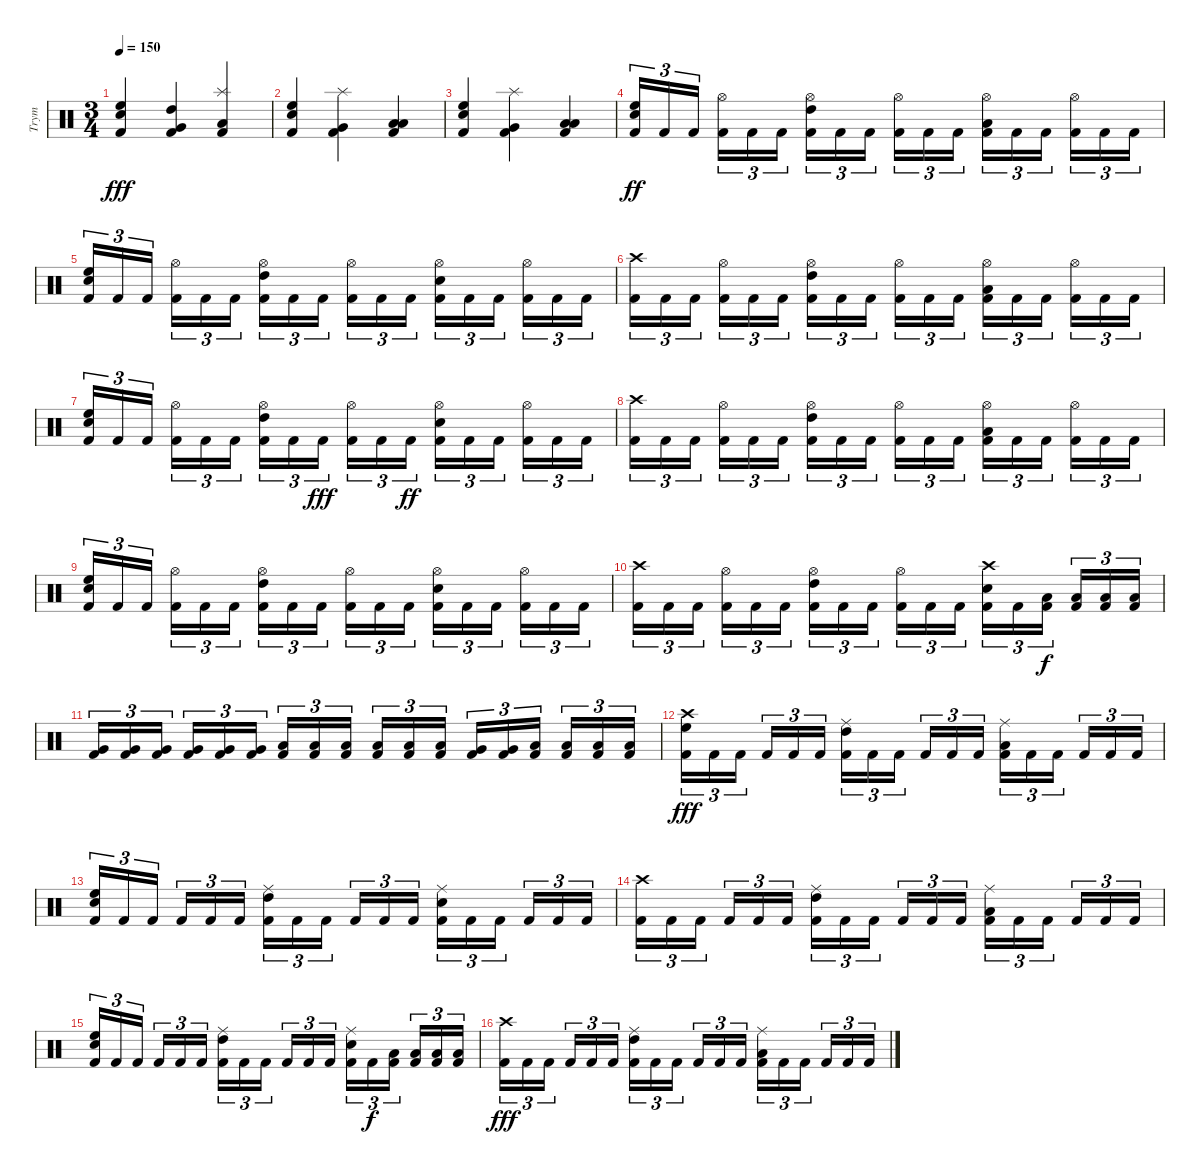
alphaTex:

\track ("Trym" "Trym") {instrument percussion}
\staff {score}
\articulation defaults
\ts (3 4)
\tempo 150
\clef neutral
\ks c
("Snare (hit) 2" "High Floor Tom (hit)" "Kick (hit) 2").4{dy fff} ("High Tom (hit)" "Very Low Tom (hit)" "Kick (hit) 2").4 ("Splash (hit)" "Low Floor Tom (hit)" "Kick (hit) 2").4 |
("Snare (hit) 2" "High Floor Tom (hit)" "Kick (hit) 2").4 ("Splash (hit)" "Very Low Tom (hit)" "Kick (hit) 2").4 ("Low Floor Tom (hit)" "Low Floor Tom (hit)" "Kick (hit) 2").4 |
("Snare (hit) 2" "High Floor Tom (hit)" "Kick (hit) 2").4 ("Splash (hit)" "Very Low Tom (hit)" "Kick (hit) 2").4 ("Low Floor Tom (hit)" "Low Floor Tom (hit)" "Kick (hit) 2").4 |
("Snare (hit) 2" "High Floor Tom (hit)" "Kick (hit) 2").16{tu (3 2) dy ff} "Kick (hit) 2".16{tu (3 2)} "Kick (hit) 2".16{tu (3 2) beam splitsecondary} ("Hi-Hat (open)" "Kick (hit) 2").16{tu (3 2)} "Kick (hit) 2".16{tu (3 2)} "Kick (hit) 2".16{tu (3 2)} ("High Tom (hit)" "Hi-Hat (open)" "Kick (hit) 2").16{tu (3 2)} "Kick (hit) 2".16{tu (3 2)} "Kick (hit) 2".16{tu (3 2) beam splitsecondary} ("Hi-Hat (open)" "Kick (hit) 2").16{tu (3 2)} "Kick (hit) 2".16{tu (3 2)} "Kick (hit) 2".16{tu (3 2)} ("Low Floor Tom (hit)" "Hi-Hat (open)" "Kick (hit) 2").16{tu (3 2)} "Kick (hit) 2".16{tu (3 2)} "Kick (hit) 2".16{tu (3 2) beam splitsecondary} ("Hi-Hat (open)" "Kick (hit) 2").16{tu (3 2)} "Kick (hit) 2".16{tu (3 2)} "Kick (hit) 2".16{tu (3 2)} |
("Snare (hit) 2" "High Floor Tom (hit)" "Kick (hit) 2").16{tu (3 2)} "Kick (hit) 2".16{tu (3 2)} "Kick (hit) 2".16{tu (3 2) beam splitsecondary} ("Hi-Hat (open)" "Kick (hit) 2").16{tu (3 2)} "Kick (hit) 2".16{tu (3 2)} "Kick (hit) 2".16{tu (3 2)} ("High Tom (hit)" "Hi-Hat (open)" "Kick (hit) 2").16{tu (3 2)} "Kick (hit) 2".16{tu (3 2)} "Kick (hit) 2".16{tu (3 2) beam splitsecondary} ("Hi-Hat (open)" "Kick (hit) 2").16{tu (3 2)} "Kick (hit) 2".16{tu (3 2)} "Kick (hit) 2".16{tu (3 2)} ("Snare (hit) 2" "Hi-Hat (open)" "Kick (hit) 2").16{tu (3 2)} "Kick (hit) 2".16{tu (3 2)} "Kick (hit) 2".16{tu (3 2) beam splitsecondary} ("Hi-Hat (open)" "Kick (hit) 2").16{tu (3 2)} "Kick (hit) 2".16{tu (3 2)} "Kick (hit) 2".16{tu (3 2)} |
("Crash high (hit)" "Kick (hit) 2").16{tu (3 2)} "Kick (hit) 2".16{tu (3 2)} "Kick (hit) 2".16{tu (3 2) beam splitsecondary} ("Hi-Hat (open)" "Kick (hit) 2").16{tu (3 2)} "Kick (hit) 2".16{tu (3 2)} "Kick (hit) 2".16{tu (3 2)} ("High Tom (hit)" "Hi-Hat (open)" "Kick (hit) 2").16{tu (3 2)} "Kick (hit) 2".16{tu (3 2)} "Kick (hit) 2".16{tu (3 2) beam splitsecondary} ("Hi-Hat (open)" "Kick (hit) 2").16{tu (3 2)} "Kick (hit) 2".16{tu (3 2)} "Kick (hit) 2".16{tu (3 2)} ("Low Floor Tom (hit)" "Hi-Hat (open)" "Kick (hit) 2").16{tu (3 2)} "Kick (hit) 2".16{tu (3 2)} "Kick (hit) 2".16{tu (3 2) beam splitsecondary} ("Hi-Hat (open)" "Kick (hit) 2").16{tu (3 2)} "Kick (hit) 2".16{tu (3 2)} "Kick (hit) 2".16{tu (3 2)} |
("Snare (hit) 2" "High Floor Tom (hit)" "Kick (hit) 2").16{tu (3 2)} "Kick (hit) 2".16{tu (3 2)} "Kick (hit) 2".16{tu (3 2) beam splitsecondary} ("Hi-Hat (open)" "Kick (hit) 2").16{tu (3 2)} "Kick (hit) 2".16{tu (3 2)} "Kick (hit) 2".16{tu (3 2)} ("High Tom (hit)" "Hi-Hat (open)" "Kick (hit) 2").16{tu (3 2)} "Kick (hit) 2".16{tu (3 2)} "Kick (hit) 2".16{tu (3 2) dy fff beam splitsecondary} ("Hi-Hat (open)" "Kick (hit) 2").16{tu (3 2)} "Kick (hit) 2".16{tu (3 2)} "Kick (hit) 2".16{tu (3 2) dy ff} ("Snare (hit) 2" "Hi-Hat (open)" "Kick (hit) 2").16{tu (3 2)} "Kick (hit) 2".16{tu (3 2)} "Kick (hit) 2".16{tu (3 2) beam splitsecondary} ("Hi-Hat (open)" "Kick (hit) 2").16{tu (3 2)} "Kick (hit) 2".16{tu (3 2)} "Kick (hit) 2".16{tu (3 2)} |
("Crash high (hit)" "Kick (hit) 2").16{tu (3 2)} "Kick (hit) 2".16{tu (3 2)} "Kick (hit) 2".16{tu (3 2) beam splitsecondary} ("Hi-Hat (open)" "Kick (hit) 2").16{tu (3 2)} "Kick (hit) 2".16{tu (3 2)} "Kick (hit) 2".16{tu (3 2)} ("High Tom (hit)" "Hi-Hat (open)" "Kick (hit) 2").16{tu (3 2)} "Kick (hit) 2".16{tu (3 2)} "Kick (hit) 2".16{tu (3 2) beam splitsecondary} ("Hi-Hat (open)" "Kick (hit) 2").16{tu (3 2)} "Kick (hit) 2".16{tu (3 2)} "Kick (hit) 2".16{tu (3 2)} ("Low Floor Tom (hit)" "Hi-Hat (open)" "Kick (hit) 2").16{tu (3 2)} "Kick (hit) 2".16{tu (3 2)} "Kick (hit) 2".16{tu (3 2) beam splitsecondary} ("Hi-Hat (open)" "Kick (hit) 2").16{tu (3 2)} "Kick (hit) 2".16{tu (3 2)} "Kick (hit) 2".16{tu (3 2)} |
("Snare (hit) 2" "High Floor Tom (hit)" "Kick (hit) 2").16{tu (3 2)} "Kick (hit) 2".16{tu (3 2)} "Kick (hit) 2".16{tu (3 2) beam splitsecondary} ("Hi-Hat (open)" "Kick (hit) 2").16{tu (3 2)} "Kick (hit) 2".16{tu (3 2)} "Kick (hit) 2".16{tu (3 2)} ("High Tom (hit)" "Hi-Hat (open)" "Kick (hit) 2").16{tu (3 2)} "Kick (hit) 2".16{tu (3 2)} "Kick (hit) 2".16{tu (3 2) beam splitsecondary} ("Hi-Hat (open)" "Kick (hit) 2").16{tu (3 2)} "Kick (hit) 2".16{tu (3 2)} "Kick (hit) 2".16{tu (3 2)} ("Snare (hit) 2" "Hi-Hat (open)" "Kick (hit) 2").16{tu (3 2)} "Kick (hit) 2".16{tu (3 2)} "Kick (hit) 2".16{tu (3 2) beam splitsecondary} ("Hi-Hat (open)" "Kick (hit) 2").16{tu (3 2)} "Kick (hit) 2".16{tu (3 2)} "Kick (hit) 2".16{tu (3 2)} |
("Crash high (hit)" "Kick (hit) 2").16{tu (3 2)} "Kick (hit) 2".16{tu (3 2)} "Kick (hit) 2".16{tu (3 2) beam splitsecondary} ("Hi-Hat (open)" "Kick (hit) 2").16{tu (3 2)} "Kick (hit) 2".16{tu (3 2)} "Kick (hit) 2".16{tu (3 2)} ("High Tom (hit)" "Hi-Hat (open)" "Kick (hit) 2").16{tu (3 2)} "Kick (hit) 2".16{tu (3 2)} "Kick (hit) 2".16{tu (3 2) beam splitsecondary} ("Hi-Hat (open)" "Kick (hit) 2").16{tu (3 2)} "Kick (hit) 2".16{tu (3 2)} "Kick (hit) 2".16{tu (3 2)} ("Crash high (hit)" "Snare (hit) 2" "Kick (hit) 2").16{tu (3 2)} "Kick (hit) 2".16{tu (3 2)} ("Low Floor Tom (hit)" "Kick (hit) 2").16{tu (3 2) dy f beam splitsecondary} ("Low Floor Tom (hit)" "Kick (hit) 2").16{tu (3 2)} ("Low Floor Tom (hit)" "Kick (hit) 2").16{tu (3 2)} ("Low Floor Tom (hit)" "Kick (hit) 2").16{tu (3 2)} |
("Very Low Tom (hit)" "Kick (hit) 2").16{tu (3 2)} ("Very Low Tom (hit)" "Kick (hit) 2").16{tu (3 2)} ("Very Low Tom (hit)" "Kick (hit) 2").16{tu (3 2) beam splitsecondary} ("Very Low Tom (hit)" "Kick (hit) 2").16{tu (3 2)} ("Very Low Tom (hit)" "Kick (hit) 2").16{tu (3 2)} ("Very Low Tom (hit)" "Kick (hit) 2").16{tu (3 2)} ("Low Floor Tom (hit)" "Kick (hit) 2").16{tu (3 2)} ("Low Floor Tom (hit)" "Kick (hit) 2").16{tu (3 2)} ("Low Floor Tom (hit)" "Kick (hit) 2").16{tu (3 2) beam splitsecondary} ("Low Floor Tom (hit)" "Kick (hit) 2").16{tu (3 2)} ("Low Floor Tom (hit)" "Kick (hit) 2").16{tu (3 2)} ("Low Floor Tom (hit)" "Kick (hit) 2").16{tu (3 2)} ("Very Low Tom (hit)" "Kick (hit) 2").16{tu (3 2)} ("Very Low Tom (hit)" "Kick (hit) 2").16{tu (3 2)} ("Low Tom (hit)" "Kick (hit) 2").16{tu (3 2) beam splitsecondary} ("Low Tom (hit)" "Kick (hit) 2").16{tu (3 2)} ("Low Floor Tom (hit)" "Kick (hit) 2").16{tu (3 2)} ("Low Floor Tom (hit)" "Kick (hit) 2").16{tu (3 2)} |
("Crash high (hit)" "High Floor Tom (hit)" "Kick (hit) 2").16{tu (3 2) dy fff} "Kick (hit) 2".16{tu (3 2)} "Kick (hit) 2".16{tu (3 2) beam splitsecondary} "Kick (hit) 2".16{tu (3 2)} "Kick (hit) 2".16{tu (3 2)} "Kick (hit) 2".16{tu (3 2)} ("High Tom (hit)" "Ride (middle)" "Kick (hit) 2").16{tu (3 2)} "Kick (hit) 2".16{tu (3 2)} "Kick (hit) 2".16{tu (3 2) beam splitsecondary} "Kick (hit) 2".16{tu (3 2)} "Kick (hit) 2".16{tu (3 2)} "Kick (hit) 2".16{tu (3 2)} ("Low Floor Tom (hit)" "Ride (middle)" "Kick (hit) 2").16{tu (3 2)} "Kick (hit) 2".16{tu (3 2)} "Kick (hit) 2".16{tu (3 2) beam splitsecondary} "Kick (hit) 2".16{tu (3 2)} "Kick (hit) 2".16{tu (3 2)} "Kick (hit) 2".16{tu (3 2)} |
("Snare (hit) 2" "High Floor Tom (hit)" "Kick (hit) 2").16{tu (3 2)} "Kick (hit) 2".16{tu (3 2)} "Kick (hit) 2".16{tu (3 2) beam splitsecondary} "Kick (hit) 2".16{tu (3 2)} "Kick (hit) 2".16{tu (3 2)} "Kick (hit) 2".16{tu (3 2)} ("High Tom (hit)" "Ride (middle)" "Kick (hit) 2").16{tu (3 2)} "Kick (hit) 2".16{tu (3 2)} "Kick (hit) 2".16{tu (3 2) beam splitsecondary} "Kick (hit) 2".16{tu (3 2)} "Kick (hit) 2".16{tu (3 2)} "Kick (hit) 2".16{tu (3 2)} ("Snare (hit) 2" "Ride (middle)" "Kick (hit) 2").16{tu (3 2)} "Kick (hit) 2".16{tu (3 2)} "Kick (hit) 2".16{tu (3 2) beam splitsecondary} "Kick (hit) 2".16{tu (3 2)} "Kick (hit) 2".16{tu (3 2)} "Kick (hit) 2".16{tu (3 2)} |
("Crash high (hit)" "Kick (hit) 2").16{tu (3 2)} "Kick (hit) 2".16{tu (3 2)} "Kick (hit) 2".16{tu (3 2) beam splitsecondary} "Kick (hit) 2".16{tu (3 2)} "Kick (hit) 2".16{tu (3 2)} "Kick (hit) 2".16{tu (3 2)} ("High Tom (hit)" "Ride (middle)" "Kick (hit) 2").16{tu (3 2)} "Kick (hit) 2".16{tu (3 2)} "Kick (hit) 2".16{tu (3 2) beam splitsecondary} "Kick (hit) 2".16{tu (3 2)} "Kick (hit) 2".16{tu (3 2)} "Kick (hit) 2".16{tu (3 2)} ("Low Floor Tom (hit)" "Ride (middle)" "Kick (hit) 2").16{tu (3 2)} "Kick (hit) 2".16{tu (3 2)} "Kick (hit) 2".16{tu (3 2) beam splitsecondary} "Kick (hit) 2".16{tu (3 2)} "Kick (hit) 2".16{tu (3 2)} "Kick (hit) 2".16{tu (3 2)} |
("Snare (hit) 2" "High Floor Tom (hit)" "Kick (hit) 2").16{tu (3 2)} "Kick (hit) 2".16{tu (3 2)} "Kick (hit) 2".16{tu (3 2) beam splitsecondary} "Kick (hit) 2".16{tu (3 2)} "Kick (hit) 2".16{tu (3 2)} "Kick (hit) 2".16{tu (3 2)} ("High Tom (hit)" "Ride (middle)" "Kick (hit) 2").16{tu (3 2)} "Kick (hit) 2".16{tu (3 2)} "Kick (hit) 2".16{tu (3 2) beam splitsecondary} "Kick (hit) 2".16{tu (3 2)} "Kick (hit) 2".16{tu (3 2)} "Kick (hit) 2".16{tu (3 2)} ("Snare (hit) 2" "Ride (middle)" "Kick (hit) 2").16{tu (3 2)} "Kick (hit) 2".16{tu (3 2) dy f} ("Low Tom (hit)" "Kick (hit) 2").16{tu (3 2) beam splitsecondary} ("Low Tom (hit)" "Kick (hit) 2").16{tu (3 2)} ("Low Floor Tom (hit)" "Kick (hit) 2").16{tu (3 2)} ("Low Floor Tom (hit)" "Kick (hit) 2").16{tu (3 2)} |
("Crash high (hit)" "Kick (hit) 2").16{tu (3 2) dy fff} "Kick (hit) 2".16{tu (3 2)} "Kick (hit) 2".16{tu (3 2) beam splitsecondary} "Kick (hit) 2".16{tu (3 2)} "Kick (hit) 2".16{tu (3 2)} "Kick (hit) 2".16{tu (3 2)} ("High Tom (hit)" "Ride (middle)" "Kick (hit) 2").16{tu (3 2)} "Kick (hit) 2".16{tu (3 2)} "Kick (hit) 2".16{tu (3 2) beam splitsecondary} "Kick (hit) 2".16{tu (3 2)} "Kick (hit) 2".16{tu (3 2)} "Kick (hit) 2".16{tu (3 2)} ("Low Floor Tom (hit)" "Ride (middle)" "Kick (hit) 2").16{tu (3 2)} "Kick (hit) 2".16{tu (3 2)} "Kick (hit) 2".16{tu (3 2) beam splitsecondary} "Kick (hit) 2".16{tu (3 2)} "Kick (hit) 2".16{tu (3 2)} "Kick (hit) 2".16{tu (3 2)}
